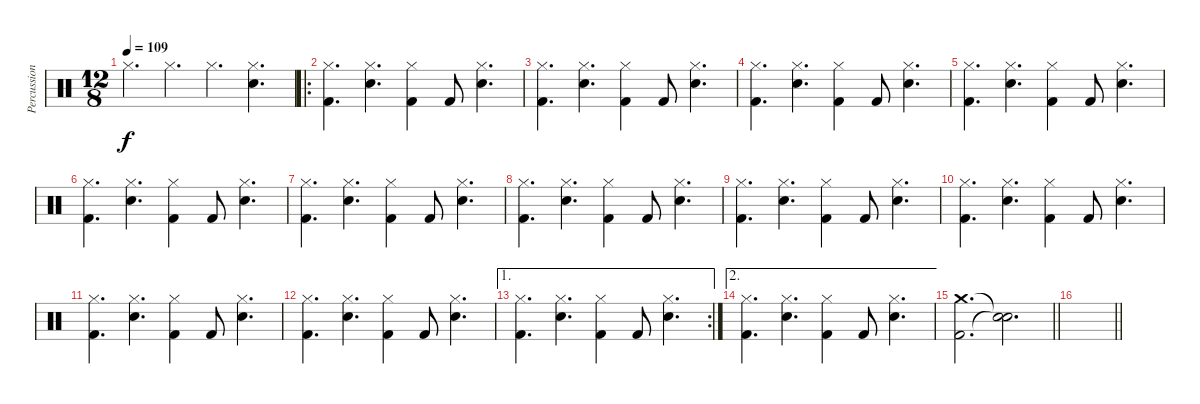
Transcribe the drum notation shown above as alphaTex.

\track ("Percussions" "Percussion") {instrument percussion}
\staff {score}
\articulation defaults
\ts (12 8)
\tempo 109
\clef neutral
\ks c "Hi-Hat (closed)".4{d dy f} "Hi-Hat (closed)".4{d} "Hi-Hat (closed)".4{d}
("Hi-Hat (closed)" "Electric Snare (hit)").4{d} |
\ro
("Hi-Hat (closed)" "Kick (hit) 2").4{d} ("Hi-Hat (closed)" "Electric Snare (hit)").4{d} ("Hi-Hat (closed)" "Kick (hit) 2").4 "Kick (hit) 2".8 ("Hi-Hat (closed)" "Electric Snare (hit)").4{d} |
("Hi-Hat (closed)" "Kick (hit) 2").4{d} ("Hi-Hat (closed)" "Electric Snare (hit)").4{d} ("Hi-Hat (closed)" "Kick (hit) 2").4 "Kick (hit) 2".8 ("Hi-Hat (closed)" "Electric Snare (hit)").4{d} |
("Hi-Hat (closed)" "Kick (hit) 2").4{d} ("Hi-Hat (closed)" "Electric Snare (hit)").4{d} ("Hi-Hat (closed)" "Kick (hit) 2").4 "Kick (hit) 2".8 ("Hi-Hat (closed)" "Electric Snare (hit)").4{d} |
("Hi-Hat (closed)" "Kick (hit) 2").4{d} ("Hi-Hat (closed)" "Electric Snare (hit)").4{d} ("Hi-Hat (closed)" "Kick (hit) 2").4 "Kick (hit) 2".8 ("Hi-Hat (closed)" "Electric Snare (hit)").4{d} |
("Hi-Hat (closed)" "Kick (hit) 2").4{d} ("Hi-Hat (closed)" "Electric Snare (hit)").4{d} ("Hi-Hat (closed)" "Kick (hit) 2").4 "Kick (hit) 2".8 ("Hi-Hat (closed)" "Electric Snare (hit)").4{d} |
("Hi-Hat (closed)" "Kick (hit) 2").4{d} ("Hi-Hat (closed)" "Electric Snare (hit)").4{d} ("Hi-Hat (closed)" "Kick (hit) 2").4 "Kick (hit) 2".8 ("Hi-Hat (closed)" "Electric Snare (hit)").4{d} |
("Hi-Hat (closed)" "Kick (hit) 2").4{d} ("Hi-Hat (closed)" "Electric Snare (hit)").4{d} ("Hi-Hat (closed)" "Kick (hit) 2").4 "Kick (hit) 2".8 ("Hi-Hat (closed)" "Electric Snare (hit)").4{d} |
("Hi-Hat (closed)" "Kick (hit) 2").4{d} ("Hi-Hat (closed)" "Electric Snare (hit)").4{d} ("Hi-Hat (closed)" "Kick (hit) 2").4 "Kick (hit) 2".8 ("Hi-Hat (closed)" "Electric Snare (hit)").4{d} |
("Hi-Hat (closed)" "Kick (hit) 2").4{d} ("Hi-Hat (closed)" "Electric Snare (hit)").4{d} ("Hi-Hat (closed)" "Kick (hit) 2").4 "Kick (hit) 2".8 ("Hi-Hat (closed)" "Electric Snare (hit)").4{d} |
("Hi-Hat (closed)" "Kick (hit) 2").4{d} ("Hi-Hat (closed)" "Electric Snare (hit)").4{d} ("Hi-Hat (closed)" "Kick (hit) 2").4 "Kick (hit) 2".8 ("Hi-Hat (closed)" "Electric Snare (hit)").4{d} |
("Hi-Hat (closed)" "Kick (hit) 2").4{d} ("Hi-Hat (closed)" "Electric Snare (hit)").4{d} ("Hi-Hat (closed)" "Kick (hit) 2").4 "Kick (hit) 2".8 ("Hi-Hat (closed)" "Electric Snare (hit)").4{d} |
\ae 1
\rc 2
("Hi-Hat (closed)" "Kick (hit) 2").4{d} ("Hi-Hat (closed)" "Electric Snare (hit)").4{d} ("Hi-Hat (closed)" "Kick (hit) 2").4 "Kick (hit) 2".8 ("Hi-Hat (closed)" "Electric Snare (hit)").4{d} |
\ae 2
("Hi-Hat (closed)" "Kick (hit) 2").4{d} ("Hi-Hat (closed)" "Electric Snare (hit)").4{d} ("Hi-Hat (closed)" "Kick (hit) 2").4 "Kick (hit) 2".8 ("Hi-Hat (closed)" "Electric Snare (hit)").4{d} |
\barLineRight lightlight
("Crash medium (hit)" "Kick (hit) 2").2{d volume 0} ("Snare (hit)"{t} "Snare (hit)"{t}).2{d} |
\barLineRight lightlight
